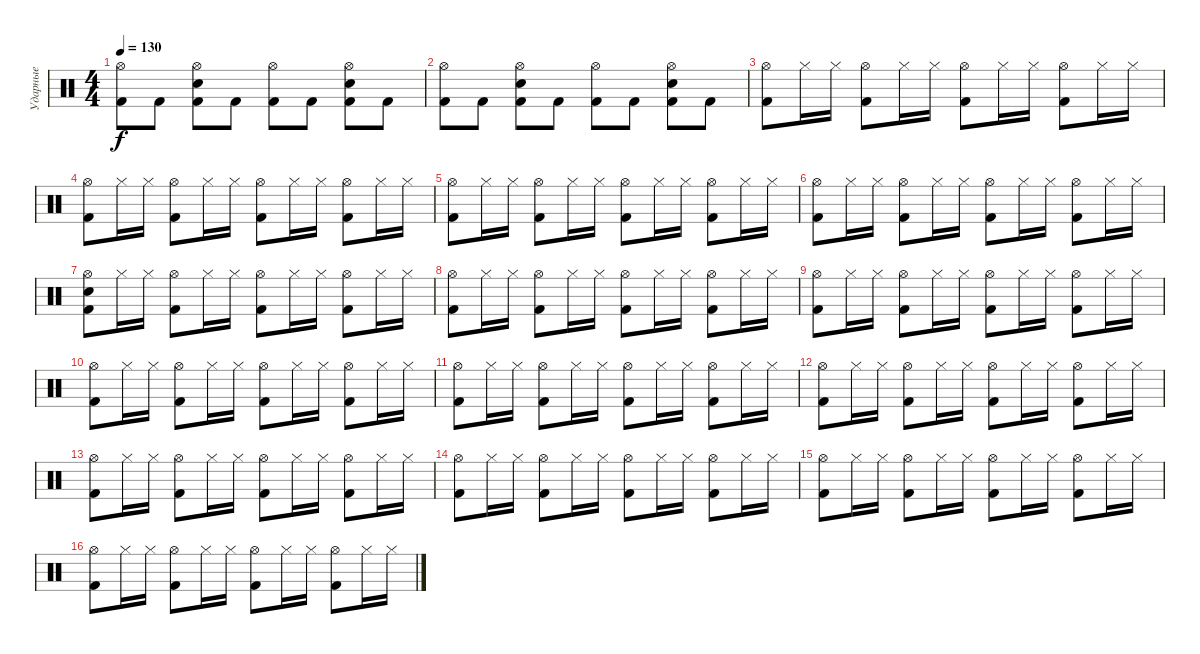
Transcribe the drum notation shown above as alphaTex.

\track ("Ударные" "Ударные") {instrument percussion}
\staff {score}
\articulation defaults
\ts (4 4)
\tempo 130
\clef neutral
\ks c
("Hi-Hat (open)" "Kick (hit) 2").8{dy f} "Kick (hit) 2".8 ("Hi-Hat (open)" "Snare (hit) 2" "Kick (hit) 2").8 "Kick (hit) 2".8 ("Hi-Hat (open)" "Kick (hit) 2").8 "Kick (hit) 2".8 ("Hi-Hat (open)" "Snare (hit) 2" "Kick (hit) 2").8 "Kick (hit) 2".8 |
("Hi-Hat (open)" "Kick (hit) 2").8 "Kick (hit) 2".8 ("Hi-Hat (open)" "Snare (hit) 2" "Kick (hit) 2").8 "Kick (hit) 2".8 ("Hi-Hat (open)" "Kick (hit) 2").8 "Kick (hit) 2".8 ("Hi-Hat (open)" "Snare (hit) 2" "Kick (hit) 2").8 "Kick (hit) 2".8 |
("Hi-Hat (open)" "Kick (hit) 2").8 "Hi-Hat (closed)".16 "Hi-Hat (closed)".16 ("Hi-Hat (open)" "Kick (hit) 2").8 "Hi-Hat (closed)".16 "Hi-Hat (closed)".16 ("Hi-Hat (open)" "Kick (hit) 2").8 "Hi-Hat (closed)".16 "Hi-Hat (closed)".16 ("Hi-Hat (open)" "Kick (hit) 2").8 "Hi-Hat (closed)".16 "Hi-Hat (closed)".16 |
("Hi-Hat (open)" "Kick (hit) 2").8 "Hi-Hat (closed)".16 "Hi-Hat (closed)".16 ("Hi-Hat (open)" "Kick (hit) 2").8 "Hi-Hat (closed)".16 "Hi-Hat (closed)".16 ("Hi-Hat (open)" "Kick (hit) 2").8 "Hi-Hat (closed)".16 "Hi-Hat (closed)".16 ("Hi-Hat (open)" "Kick (hit) 2").8 "Hi-Hat (closed)".16 "Hi-Hat (closed)".16 |
("Hi-Hat (open)" "Kick (hit) 2").8 "Hi-Hat (closed)".16 "Hi-Hat (closed)".16 ("Hi-Hat (open)" "Kick (hit) 2").8 "Hi-Hat (closed)".16 "Hi-Hat (closed)".16 ("Hi-Hat (open)" "Kick (hit) 2").8 "Hi-Hat (closed)".16 "Hi-Hat (closed)".16 ("Hi-Hat (open)" "Kick (hit) 2").8 "Hi-Hat (closed)".16 "Hi-Hat (closed)".16 |
("Hi-Hat (open)" "Kick (hit) 2").8 "Hi-Hat (closed)".16 "Hi-Hat (closed)".16 ("Hi-Hat (open)" "Kick (hit) 2").8 "Hi-Hat (closed)".16 "Hi-Hat (closed)".16 ("Hi-Hat (open)" "Kick (hit) 2").8 "Hi-Hat (closed)".16 "Hi-Hat (closed)".16 ("Hi-Hat (open)" "Kick (hit) 2").8 "Hi-Hat (closed)".16 "Hi-Hat (closed)".16 |
("Hi-Hat (open)" "Snare (hit) 2" "Kick (hit) 2").8 "Hi-Hat (closed)".16 "Hi-Hat (closed)".16 ("Hi-Hat (open)" "Kick (hit) 2").8 "Hi-Hat (closed)".16 "Hi-Hat (closed)".16 ("Hi-Hat (open)" "Kick (hit) 2").8 "Hi-Hat (closed)".16 "Hi-Hat (closed)".16 ("Hi-Hat (open)" "Kick (hit) 2").8 "Hi-Hat (closed)".16 "Hi-Hat (closed)".16 |
("Hi-Hat (open)" "Kick (hit) 2").8 "Hi-Hat (closed)".16 "Hi-Hat (closed)".16 ("Hi-Hat (open)" "Kick (hit) 2").8 "Hi-Hat (closed)".16 "Hi-Hat (closed)".16 ("Hi-Hat (open)" "Kick (hit) 2").8 "Hi-Hat (closed)".16 "Hi-Hat (closed)".16 ("Hi-Hat (open)" "Kick (hit) 2").8 "Hi-Hat (closed)".16 "Hi-Hat (closed)".16 |
("Hi-Hat (open)" "Kick (hit) 2").8 "Hi-Hat (closed)".16 "Hi-Hat (closed)".16 ("Hi-Hat (open)" "Kick (hit) 2").8 "Hi-Hat (closed)".16 "Hi-Hat (closed)".16 ("Hi-Hat (open)" "Kick (hit) 2").8 "Hi-Hat (closed)".16 "Hi-Hat (closed)".16 ("Hi-Hat (open)" "Kick (hit) 2").8 "Hi-Hat (closed)".16 "Hi-Hat (closed)".16 |
("Hi-Hat (open)" "Kick (hit) 2").8 "Hi-Hat (closed)".16 "Hi-Hat (closed)".16 ("Hi-Hat (open)" "Kick (hit) 2").8 "Hi-Hat (closed)".16 "Hi-Hat (closed)".16 ("Hi-Hat (open)" "Kick (hit) 2").8 "Hi-Hat (closed)".16 "Hi-Hat (closed)".16 ("Hi-Hat (open)" "Kick (hit) 2").8 "Hi-Hat (closed)".16 "Hi-Hat (closed)".16 |
("Hi-Hat (open)" "Kick (hit) 2").8 "Hi-Hat (closed)".16 "Hi-Hat (closed)".16 ("Hi-Hat (open)" "Kick (hit) 2").8 "Hi-Hat (closed)".16 "Hi-Hat (closed)".16 ("Hi-Hat (open)" "Kick (hit) 2").8 "Hi-Hat (closed)".16 "Hi-Hat (closed)".16 ("Hi-Hat (open)" "Kick (hit) 2").8 "Hi-Hat (closed)".16 "Hi-Hat (closed)".16 |
("Hi-Hat (open)" "Kick (hit) 2").8 "Hi-Hat (closed)".16 "Hi-Hat (closed)".16 ("Hi-Hat (open)" "Kick (hit) 2").8 "Hi-Hat (closed)".16 "Hi-Hat (closed)".16 ("Hi-Hat (open)" "Kick (hit) 2").8 "Hi-Hat (closed)".16 "Hi-Hat (closed)".16 ("Hi-Hat (open)" "Kick (hit) 2").8 "Hi-Hat (closed)".16 "Hi-Hat (closed)".16 |
("Hi-Hat (open)" "Kick (hit) 2").8 "Hi-Hat (closed)".16 "Hi-Hat (closed)".16 ("Hi-Hat (open)" "Kick (hit) 2").8 "Hi-Hat (closed)".16 "Hi-Hat (closed)".16 ("Hi-Hat (open)" "Kick (hit) 2").8 "Hi-Hat (closed)".16 "Hi-Hat (closed)".16 ("Hi-Hat (open)" "Kick (hit) 2").8 "Hi-Hat (closed)".16 "Hi-Hat (closed)".16 |
("Hi-Hat (open)" "Kick (hit) 2").8 "Hi-Hat (closed)".16 "Hi-Hat (closed)".16 ("Hi-Hat (open)" "Kick (hit) 2").8 "Hi-Hat (closed)".16 "Hi-Hat (closed)".16 ("Hi-Hat (open)" "Kick (hit) 2").8 "Hi-Hat (closed)".16 "Hi-Hat (closed)".16 ("Hi-Hat (open)" "Kick (hit) 2").8 "Hi-Hat (closed)".16 "Hi-Hat (closed)".16 |
("Hi-Hat (open)" "Kick (hit) 2").8 "Hi-Hat (closed)".16 "Hi-Hat (closed)".16 ("Hi-Hat (open)" "Kick (hit) 2").8 "Hi-Hat (closed)".16 "Hi-Hat (closed)".16 ("Hi-Hat (open)" "Kick (hit) 2").8 "Hi-Hat (closed)".16 "Hi-Hat (closed)".16 ("Hi-Hat (open)" "Kick (hit) 2").8 "Hi-Hat (closed)".16 "Hi-Hat (closed)".16 |
("Hi-Hat (open)" "Kick (hit) 2").8 "Hi-Hat (closed)".16 "Hi-Hat (closed)".16 ("Hi-Hat (open)" "Kick (hit) 2").8 "Hi-Hat (closed)".16 "Hi-Hat (closed)".16 ("Hi-Hat (open)" "Kick (hit) 2").8 "Hi-Hat (closed)".16 "Hi-Hat (closed)".16 ("Hi-Hat (open)" "Kick (hit) 2").8 "Hi-Hat (closed)".16 "Hi-Hat (closed)".16
